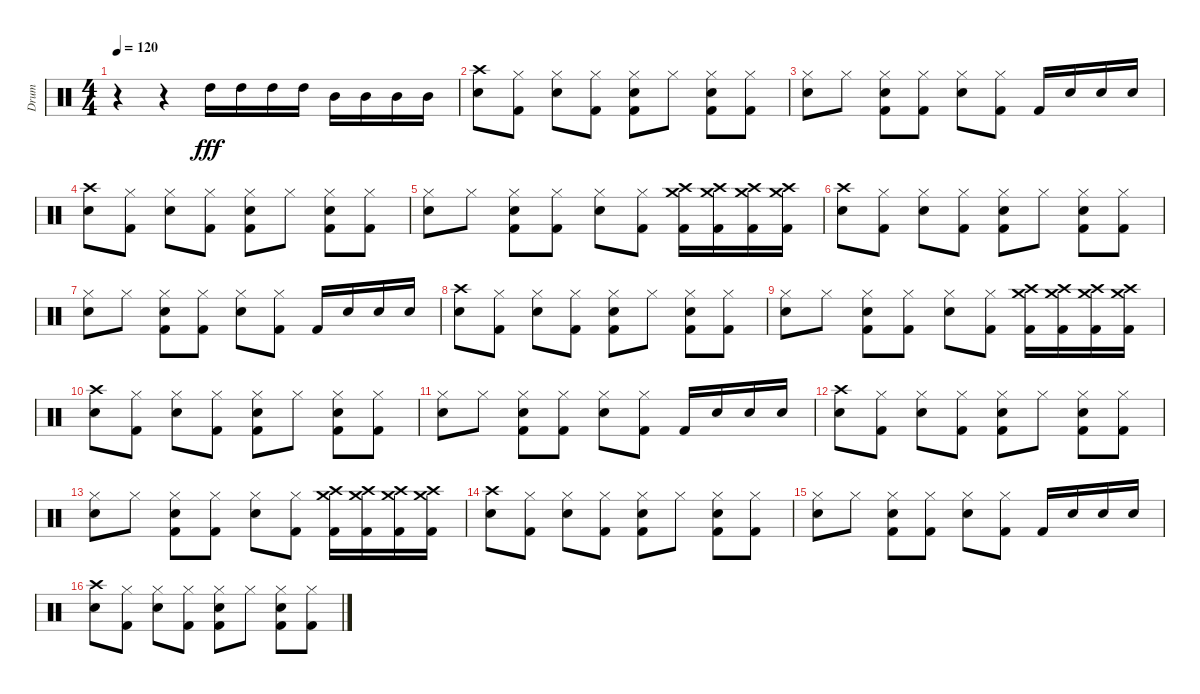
\track ("Drum" "Drum") {instrument percussion}
\staff {score}
\articulation defaults
\ts (4 4)
\tempo 120
\clef neutral
\ks c
r.4{dy fff} r.4 "High Tom (hit)".16 "High Tom (hit)".16 "High Tom (hit)".16 "High Tom (hit)".16 "Mid Tom (hit)".16 "Mid Tom (hit)".16 "Mid Tom (hit)".16 "Mid Tom (hit)".16 |
("Crash high (hit)" "Electric Snare (hit)").8 ("Hi-Hat (closed)" "Kick (hit) 2").8 ("Hi-Hat (closed)" "Electric Snare (hit)").8 ("Hi-Hat (closed)" "Kick (hit) 2").8 ("Hi-Hat (closed)" "Electric Snare (hit)" "Kick (hit) 2").8 "Hi-Hat (closed)".8 ("Hi-Hat (closed)" "Electric Snare (hit)" "Kick (hit) 2").8 ("Hi-Hat (closed)" "Kick (hit) 2").8 |
("Hi-Hat (closed)" "Electric Snare (hit)").8 "Hi-Hat (closed)".8 ("Hi-Hat (closed)" "Electric Snare (hit)" "Kick (hit) 2").8 ("Hi-Hat (closed)" "Kick (hit) 2").8 ("Hi-Hat (closed)" "Electric Snare (hit)").8 ("Hi-Hat (closed)" "Kick (hit) 2").8 "Kick (hit) 2".16 "Electric Snare (hit)".16 "Electric Snare (hit)".16 "Electric Snare (hit)".16 |
("Crash high (hit)" "Electric Snare (hit)").8 ("Hi-Hat (closed)" "Kick (hit) 2").8 ("Hi-Hat (closed)" "Electric Snare (hit)").8 ("Hi-Hat (closed)" "Kick (hit) 2").8 ("Hi-Hat (closed)" "Electric Snare (hit)" "Kick (hit) 2").8 "Hi-Hat (closed)".8 ("Hi-Hat (closed)" "Electric Snare (hit)" "Kick (hit) 2").8 ("Hi-Hat (closed)" "Kick (hit) 2").8 |
("Hi-Hat (closed)" "Electric Snare (hit)").8 "Hi-Hat (closed)".8 ("Hi-Hat (closed)" "Electric Snare (hit)" "Kick (hit) 2").8 ("Hi-Hat (closed)" "Kick (hit) 2").8 ("Hi-Hat (closed)" "Electric Snare (hit)").8 ("Hi-Hat (closed)" "Kick (hit) 2").8 ("Crash medium (hit)" "Crash high (hit)" "Kick (hit) 2").16 ("Crash medium (hit)" "Crash high (hit)" "Kick (hit) 2").16 ("Crash medium (hit)" "Crash high (hit)" "Kick (hit) 2").16 ("Crash medium (hit)" "Crash high (hit)" "Kick (hit) 2").16 |
("Crash high (hit)" "Electric Snare (hit)").8 ("Hi-Hat (closed)" "Kick (hit) 2").8 ("Hi-Hat (closed)" "Electric Snare (hit)").8 ("Hi-Hat (closed)" "Kick (hit) 2").8 ("Hi-Hat (closed)" "Electric Snare (hit)" "Kick (hit) 2").8 "Hi-Hat (closed)".8 ("Hi-Hat (closed)" "Electric Snare (hit)" "Kick (hit) 2").8 ("Hi-Hat (closed)" "Kick (hit) 2").8 |
("Hi-Hat (closed)" "Electric Snare (hit)").8 "Hi-Hat (closed)".8 ("Hi-Hat (closed)" "Electric Snare (hit)" "Kick (hit) 2").8 ("Hi-Hat (closed)" "Kick (hit) 2").8 ("Hi-Hat (closed)" "Electric Snare (hit)").8 ("Hi-Hat (closed)" "Kick (hit) 2").8 "Kick (hit) 2".16 "Electric Snare (hit)".16 "Electric Snare (hit)".16 "Electric Snare (hit)".16 |
("Crash high (hit)" "Electric Snare (hit)").8 ("Hi-Hat (closed)" "Kick (hit) 2").8 ("Hi-Hat (closed)" "Electric Snare (hit)").8 ("Hi-Hat (closed)" "Kick (hit) 2").8 ("Hi-Hat (closed)" "Electric Snare (hit)" "Kick (hit) 2").8 "Hi-Hat (closed)".8 ("Hi-Hat (closed)" "Electric Snare (hit)" "Kick (hit) 2").8 ("Hi-Hat (closed)" "Kick (hit) 2").8 |
("Hi-Hat (closed)" "Electric Snare (hit)").8 "Hi-Hat (closed)".8 ("Hi-Hat (closed)" "Electric Snare (hit)" "Kick (hit) 2").8 ("Hi-Hat (closed)" "Kick (hit) 2").8 ("Hi-Hat (closed)" "Electric Snare (hit)").8 ("Hi-Hat (closed)" "Kick (hit) 2").8 ("Crash medium (hit)" "Crash high (hit)" "Kick (hit) 2").16 ("Crash medium (hit)" "Crash high (hit)" "Kick (hit) 2").16 ("Crash medium (hit)" "Crash high (hit)" "Kick (hit) 2").16 ("Crash medium (hit)" "Crash high (hit)" "Kick (hit) 2").16 |
("Crash high (hit)" "Electric Snare (hit)").8 ("Hi-Hat (closed)" "Kick (hit) 2").8 ("Hi-Hat (closed)" "Electric Snare (hit)").8 ("Hi-Hat (closed)" "Kick (hit) 2").8 ("Hi-Hat (closed)" "Electric Snare (hit)" "Kick (hit) 2").8 "Hi-Hat (closed)".8 ("Hi-Hat (closed)" "Electric Snare (hit)" "Kick (hit) 2").8 ("Hi-Hat (closed)" "Kick (hit) 2").8 |
("Hi-Hat (closed)" "Electric Snare (hit)").8 "Hi-Hat (closed)".8 ("Hi-Hat (closed)" "Electric Snare (hit)" "Kick (hit) 2").8 ("Hi-Hat (closed)" "Kick (hit) 2").8 ("Hi-Hat (closed)" "Electric Snare (hit)").8 ("Hi-Hat (closed)" "Kick (hit) 2").8 "Kick (hit) 2".16 "Electric Snare (hit)".16 "Electric Snare (hit)".16 "Electric Snare (hit)".16 |
("Crash high (hit)" "Electric Snare (hit)").8 ("Hi-Hat (closed)" "Kick (hit) 2").8 ("Hi-Hat (closed)" "Electric Snare (hit)").8 ("Hi-Hat (closed)" "Kick (hit) 2").8 ("Hi-Hat (closed)" "Electric Snare (hit)" "Kick (hit) 2").8 "Hi-Hat (closed)".8 ("Hi-Hat (closed)" "Electric Snare (hit)" "Kick (hit) 2").8 ("Hi-Hat (closed)" "Kick (hit) 2").8 |
("Hi-Hat (closed)" "Electric Snare (hit)").8 "Hi-Hat (closed)".8 ("Hi-Hat (closed)" "Electric Snare (hit)" "Kick (hit) 2").8 ("Hi-Hat (closed)" "Kick (hit) 2").8 ("Hi-Hat (closed)" "Electric Snare (hit)").8 ("Hi-Hat (closed)" "Kick (hit) 2").8 ("Crash medium (hit)" "Crash high (hit)" "Kick (hit) 2").16 ("Crash medium (hit)" "Crash high (hit)" "Kick (hit) 2").16 ("Crash medium (hit)" "Crash high (hit)" "Kick (hit) 2").16 ("Crash medium (hit)" "Crash high (hit)" "Kick (hit) 2").16 |
("Crash high (hit)" "Electric Snare (hit)").8 ("Hi-Hat (closed)" "Kick (hit) 2").8 ("Hi-Hat (closed)" "Electric Snare (hit)").8 ("Hi-Hat (closed)" "Kick (hit) 2").8 ("Hi-Hat (closed)" "Electric Snare (hit)" "Kick (hit) 2").8 "Hi-Hat (closed)".8 ("Hi-Hat (closed)" "Electric Snare (hit)" "Kick (hit) 2").8 ("Hi-Hat (closed)" "Kick (hit) 2").8 |
("Hi-Hat (closed)" "Electric Snare (hit)").8 "Hi-Hat (closed)".8 ("Hi-Hat (closed)" "Electric Snare (hit)" "Kick (hit) 2").8 ("Hi-Hat (closed)" "Kick (hit) 2").8 ("Hi-Hat (closed)" "Electric Snare (hit)").8 ("Hi-Hat (closed)" "Kick (hit) 2").8 "Kick (hit) 2".16 "Electric Snare (hit)".16 "Electric Snare (hit)".16 "Electric Snare (hit)".16 |
("Crash high (hit)" "Electric Snare (hit)").8 ("Hi-Hat (closed)" "Kick (hit) 2").8 ("Hi-Hat (closed)" "Electric Snare (hit)").8 ("Hi-Hat (closed)" "Kick (hit) 2").8 ("Hi-Hat (closed)" "Electric Snare (hit)" "Kick (hit) 2").8 "Hi-Hat (closed)".8 ("Hi-Hat (closed)" "Electric Snare (hit)" "Kick (hit) 2").8 ("Hi-Hat (closed)" "Kick (hit) 2").8
